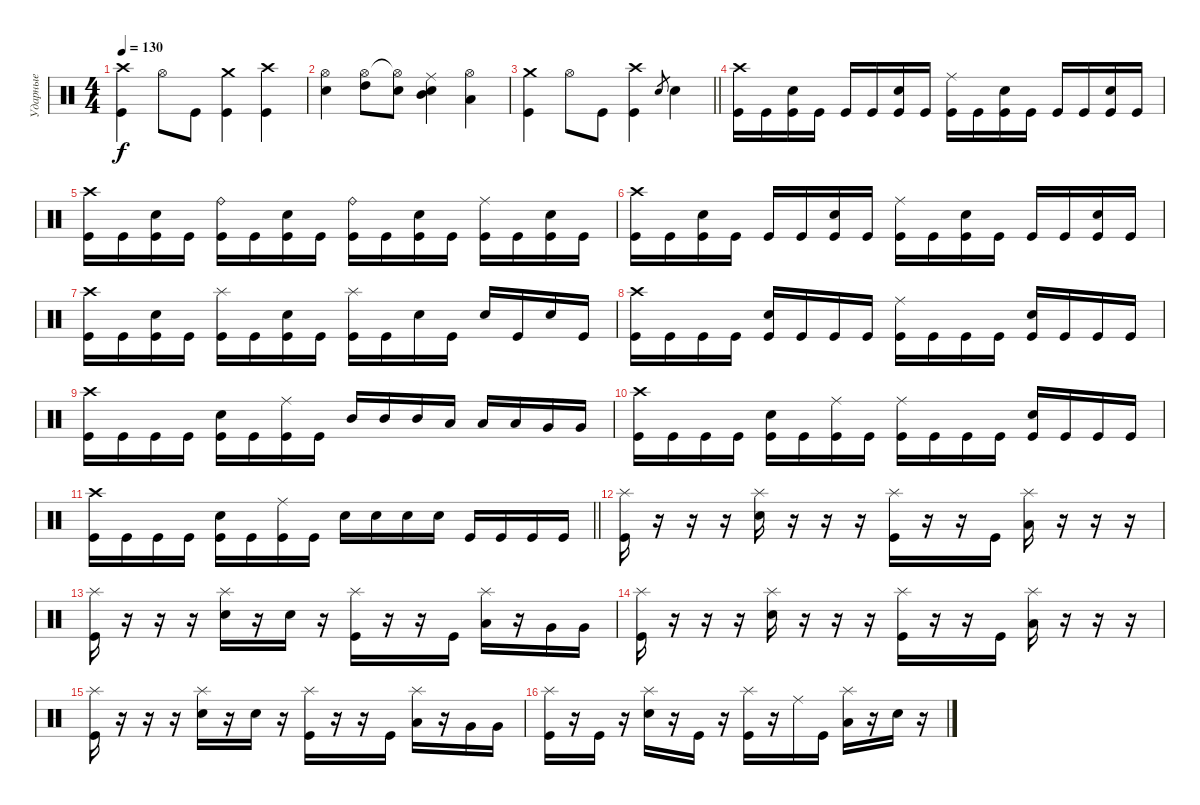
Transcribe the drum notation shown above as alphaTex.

\track ("Ударные" "Ударные") {instrument percussion}
\staff {score}
\articulation defaults
\ts (4 4)
\tempo 130
\clef neutral
\ks c
("Crash high (hit)" "Kick (hit)").4{dy f} "Hi-Hat (open)".8 "Kick (hit)".8 ("Crash medium (hit)" "Kick (hit)").4 ("Crash high (hit)" "Kick (hit)").4 |
("Electric Snare (hit)" "Hi-Hat (open)").4 ("Hi-Hat (open)" "High Tom (hit)").8 ("Hi-Hat (open)"{t} "Electric Snare (hit)").8 ("Ride (middle)" "Electric Snare (hit)" "Mid Tom (hit)").4 ("Hi-Hat (open)" "Low Tom (hit)").4 |
\barLineRight lightlight
("Crash medium (hit)" "Kick (hit)").4 "Hi-Hat (open)".8 "Kick (hit)".8 ("Crash high (hit)" "Kick (hit)").4 "Electric Snare (hit)".8{gr} "Electric Snare (hit)".4 |
("Crash high (hit)" "Kick (hit)").16 "Kick (hit)".16 ("Electric Snare (hit)" "Kick (hit)").16 "Kick (hit)".16 "Kick (hit)".16 "Kick (hit)".16 ("Electric Snare (hit)" "Kick (hit)").16 "Kick (hit)".16 ("Ride (middle)" "Kick (hit)").16 "Kick (hit)".16 ("Electric Snare (hit)" "Kick (hit)").16 "Kick (hit)".16 "Kick (hit)".16 "Kick (hit)".16 ("Electric Snare (hit)" "Kick (hit)").16 "Kick (hit)".16 |
("Crash high (hit)" "Kick (hit)").16 "Kick (hit)".16 ("Electric Snare (hit)" "Kick (hit)").16 "Kick (hit)".16 ("Ride (bell)" "Kick (hit)").16 "Kick (hit)".16 ("Electric Snare (hit)" "Kick (hit)").16 "Kick (hit)".16 ("Ride (bell)" "Kick (hit)").16 "Kick (hit)".16 ("Electric Snare (hit)" "Kick (hit)").16 "Kick (hit)".16 ("Ride (middle)" "Kick (hit)").16 "Kick (hit)".16 ("Electric Snare (hit)" "Kick (hit)").16 "Kick (hit)".16 |
("Crash high (hit)" "Kick (hit)").16 "Kick (hit)".16 ("Electric Snare (hit)" "Kick (hit)").16 "Kick (hit)".16 "Kick (hit)".16 "Kick (hit)".16 ("Electric Snare (hit)" "Kick (hit)").16 "Kick (hit)".16 ("Ride (middle)" "Kick (hit)").16 "Kick (hit)".16 ("Electric Snare (hit)" "Kick (hit)").16 "Kick (hit)".16 "Kick (hit)".16 "Kick (hit)".16 ("Electric Snare (hit)" "Kick (hit)").16 "Kick (hit)".16 |
("Crash high (hit)" "Kick (hit)").16 "Kick (hit)".16 ("Electric Snare (hit)" "Kick (hit)").16 "Kick (hit)".16 ("Splash (hit)" "Kick (hit)").16 "Kick (hit)".16 ("Electric Snare (hit)" "Kick (hit)").16 "Kick (hit)".16 ("Splash (hit)" "Kick (hit)").16 "Kick (hit)".16 "Electric Snare (hit)".16 "Kick (hit)".16 "Electric Snare (hit)".16 "Kick (hit)".16 "Electric Snare (hit)".16 "Kick (hit)".16 |
("Crash high (hit)" "Kick (hit)").16 "Kick (hit)".16 "Kick (hit)".16 "Kick (hit)".16 ("Electric Snare (hit)" "Kick (hit)").16 "Kick (hit)".16 "Kick (hit)".16 "Kick (hit)".16 ("Ride (middle)" "Kick (hit)").16 "Kick (hit)".16 "Kick (hit)".16 "Kick (hit)".16 ("Electric Snare (hit)" "Kick (hit)").16 "Kick (hit)".16 "Kick (hit)".16 "Kick (hit)".16 |
("Crash high (hit)" "Kick (hit)").16 "Kick (hit)".16 "Kick (hit)".16 "Kick (hit)".16 ("Electric Snare (hit)" "Kick (hit)").16 "Kick (hit)".16 ("Ride (middle)" "Kick (hit)").16 "Kick (hit)".16 "Mid Tom (hit)".16 "Mid Tom (hit)".16 "Mid Tom (hit)".16 "Low Tom (hit)".16 "Low Tom (hit)".16 "Low Tom (hit)".16 "Very Low Tom (hit)".16 "Very Low Tom (hit)".16 |
("Crash high (hit)" "Kick (hit)").16 "Kick (hit)".16 "Kick (hit)".16 "Kick (hit)".16 ("Electric Snare (hit)" "Kick (hit)").16 "Kick (hit)".16 ("Ride (middle)" "Kick (hit)").16 "Kick (hit)".16 ("Ride (middle)" "Kick (hit)").16 "Kick (hit)".16 "Kick (hit)".16 "Kick (hit)".16 ("Electric Snare (hit)" "Kick (hit)").16 "Kick (hit)".16 "Kick (hit)".16 "Kick (hit)".16 |
\barLineRight lightlight
("Crash high (hit)" "Kick (hit)").16 "Kick (hit)".16 "Kick (hit)".16 "Kick (hit)".16 ("Electric Snare (hit)" "Kick (hit)").16 "Kick (hit)".16 ("Ride (middle)" "Kick (hit)").16 "Kick (hit)".16 "Electric Snare (hit)".16 "Electric Snare (hit)".16 "Electric Snare (hit)".16 "Electric Snare (hit)".16 "Kick (hit)".16 "Kick (hit)".16 "Kick (hit)".16 "Kick (hit)".16 |
\section ("" " ")
("Splash (hit)" "Kick (hit)").16 r.16 r.16 r.16 ("Splash (hit)" "Electric Snare (hit)").16 r.16 r.16 r.16 ("Splash (hit)" "Kick (hit)").16 r.16 r.16 "Kick (hit)".16 ("Splash (hit)" "Low Floor Tom (hit)").16 r.16 r.16 r.16 |
("Splash (hit)" "Kick (hit)").16 r.16 r.16 r.16 ("Splash (hit)" "Electric Snare (hit)").16 r.16 "Electric Snare (hit)".16 r.16 ("Splash (hit)" "Kick (hit)").16 r.16 r.16 "Kick (hit)".16 ("Splash (hit)" "Low Floor Tom (hit)").16 r.16 "Very Low Tom (hit)".16 "Very Low Tom (hit)".16 |
("Splash (hit)" "Kick (hit)").16 r.16 r.16 r.16 ("Splash (hit)" "Electric Snare (hit)").16 r.16 r.16 r.16 ("Splash (hit)" "Kick (hit)").16 r.16 r.16 "Kick (hit)".16 ("Splash (hit)" "Low Floor Tom (hit)").16 r.16 r.16 r.16 |
("Splash (hit)" "Kick (hit)").16 r.16 r.16 r.16 ("Splash (hit)" "Electric Snare (hit)").16 r.16 "Electric Snare (hit)".16 r.16 ("Splash (hit)" "Kick (hit)").16 r.16 r.16 "Kick (hit)".16 ("Splash (hit)" "Low Floor Tom (hit)").16 r.16 "Very Low Tom (hit)".16 "Very Low Tom (hit)".16 |
("Splash (hit)" "Kick (hit)").16 r.16 "Kick (hit)".16 r.16 ("Splash (hit)" "Electric Snare (hit)").16 r.16 "Kick (hit)".16 r.16 ("Splash (hit)" "Kick (hit)").16 r.16 "Ride (middle)".16 "Kick (hit)".16 ("Splash (hit)" "Low Floor Tom (hit)").16 r.16 "Electric Snare (hit)".16 r.16
